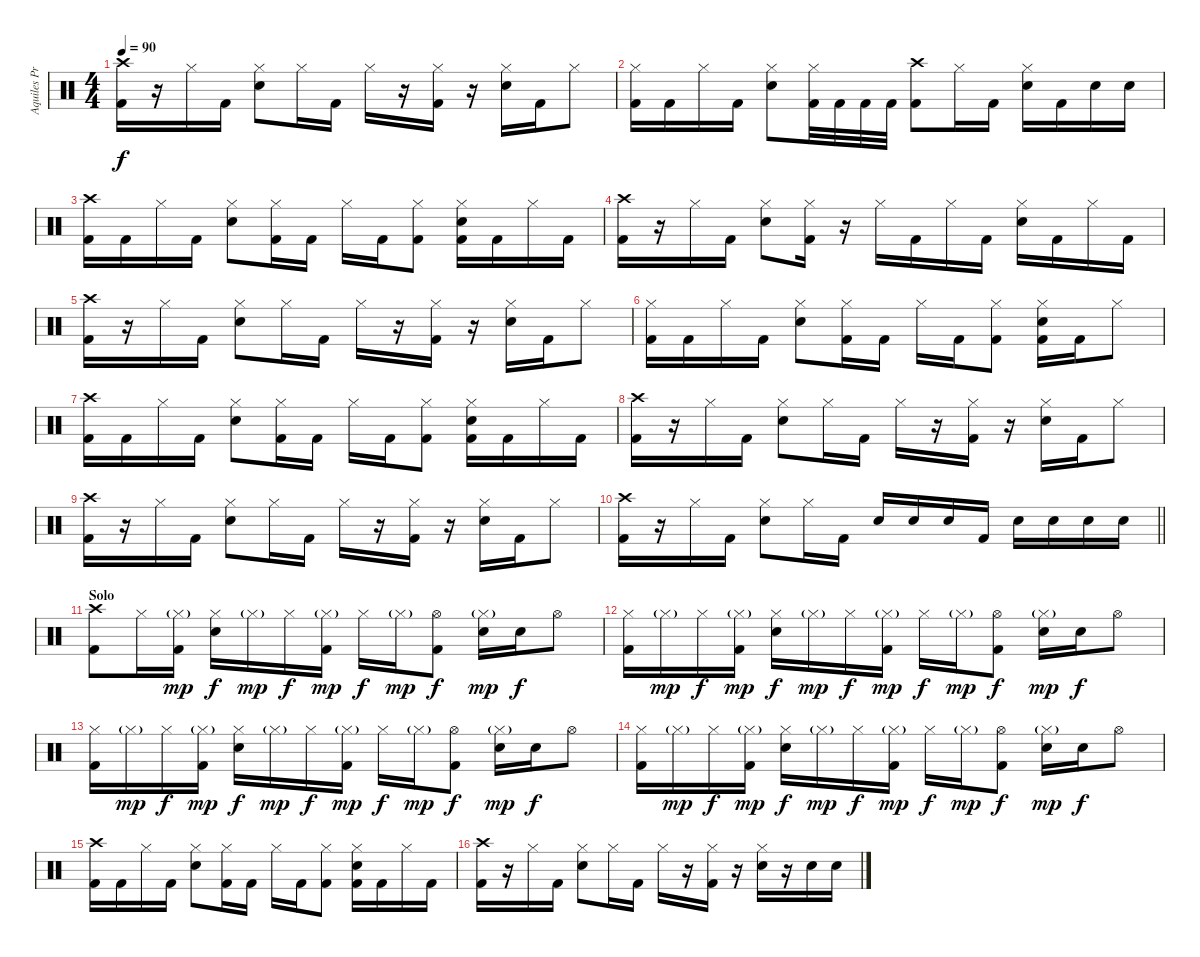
\track ("Aquiles Priester" "Aquiles Pr") {instrument percussion}
\staff {score}
\articulation defaults
\ts (4 4)
\tempo 90
\clef neutral
\ks c
("Crash high (hit)" "Kick (hit) 2").16{dy f} r.16 "Hi-Hat (closed)".16 "Kick (hit) 2".16 ("Hi-Hat (closed)" "Electric Snare (hit)").8 "Hi-Hat (closed)".16 "Kick (hit) 2".16 "Hi-Hat (closed)".16 r.16 ("Hi-Hat (closed)" "Kick (hit) 2").16 r.16 ("Hi-Hat (closed)" "Electric Snare (hit)").16 "Kick (hit) 2".16 "Hi-Hat (closed)".8 |
("Hi-Hat (closed)" "Kick (hit) 2").16 "Kick (hit) 2".16 "Hi-Hat (closed)".16 "Kick (hit) 2".16 ("Hi-Hat (closed)" "Electric Snare (hit)").8 ("Hi-Hat (closed)" "Kick (hit) 2").32 "Kick (hit) 2".32 "Kick (hit) 2".32 "Kick (hit) 2".32 ("Crash high (hit)" "Kick (hit) 2").8 "Hi-Hat (closed)".16 "Kick (hit) 2".16 ("Hi-Hat (closed)" "Electric Snare (hit)").16 "Kick (hit) 2".16 "Electric Snare (hit)".16 "Electric Snare (hit)".16 |
("Crash high (hit)" "Kick (hit) 2").16 "Kick (hit) 2".16 "Hi-Hat (closed)".16 "Kick (hit) 2".16 ("Hi-Hat (closed)" "Electric Snare (hit)").8 ("Hi-Hat (closed)" "Kick (hit) 2").16 "Kick (hit) 2".16 "Hi-Hat (closed)".16 "Kick (hit) 2".16 ("Hi-Hat (closed)" "Kick (hit) 2").8 ("Hi-Hat (closed)" "Electric Snare (hit)" "Kick (hit) 2").16 "Kick (hit) 2".16 "Hi-Hat (closed)".16 "Kick (hit) 2".16 |
("Crash high (hit)" "Kick (hit) 2").16 r.16 "Hi-Hat (closed)".16 "Kick (hit) 2".16 ("Hi-Hat (closed)" "Electric Snare (hit)").8 ("Hi-Hat (closed)" "Kick (hit) 2").16 r.16 "Hi-Hat (closed)".16 "Kick (hit) 2".16 "Hi-Hat (closed)".16 "Kick (hit) 2".16 ("Hi-Hat (closed)" "Electric Snare (hit)").16 "Kick (hit) 2".16 "Hi-Hat (closed)".16 "Kick (hit) 2".16 |
("Crash high (hit)" "Kick (hit) 2").16 r.16 "Hi-Hat (closed)".16 "Kick (hit) 2".16 ("Hi-Hat (closed)" "Electric Snare (hit)").8 "Hi-Hat (closed)".16 "Kick (hit) 2".16 "Hi-Hat (closed)".16 r.16 ("Hi-Hat (closed)" "Kick (hit) 2").16 r.16 ("Hi-Hat (closed)" "Electric Snare (hit)").16 "Kick (hit) 2".16 "Hi-Hat (closed)".8 |
("Hi-Hat (closed)" "Kick (hit) 2").16 "Kick (hit) 2".16 "Hi-Hat (closed)".16 "Kick (hit) 2".16 ("Hi-Hat (closed)" "Electric Snare (hit)").8 ("Hi-Hat (closed)" "Kick (hit) 2").16 "Kick (hit) 2".16 "Hi-Hat (closed)".16 "Kick (hit) 2".16 ("Hi-Hat (closed)" "Kick (hit) 2").8 ("Hi-Hat (closed)" "Electric Snare (hit)" "Kick (hit) 2").16 "Kick (hit) 2".16 "Hi-Hat (closed)".8 |
("Crash high (hit)" "Kick (hit) 2").16 "Kick (hit) 2".16 "Hi-Hat (closed)".16 "Kick (hit) 2".16 ("Hi-Hat (closed)" "Electric Snare (hit)").8 ("Hi-Hat (closed)" "Kick (hit) 2").16 "Kick (hit) 2".16 "Hi-Hat (closed)".16 "Kick (hit) 2".16 ("Hi-Hat (closed)" "Kick (hit) 2").8 ("Hi-Hat (closed)" "Electric Snare (hit)" "Kick (hit) 2").16 "Kick (hit) 2".16 "Hi-Hat (closed)".16 "Kick (hit) 2".16 |
("Crash high (hit)" "Kick (hit) 2").16 r.16 "Hi-Hat (closed)".16 "Kick (hit) 2".16 ("Hi-Hat (closed)" "Electric Snare (hit)").8 "Hi-Hat (closed)".16 "Kick (hit) 2".16 "Hi-Hat (closed)".16 r.16 ("Hi-Hat (closed)" "Kick (hit) 2").16 r.16 ("Hi-Hat (closed)" "Electric Snare (hit)").16 "Kick (hit) 2".16 "Hi-Hat (closed)".8 |
("Crash high (hit)" "Kick (hit) 2").16 r.16 "Hi-Hat (closed)".16 "Kick (hit) 2".16 ("Hi-Hat (closed)" "Electric Snare (hit)").8 "Hi-Hat (closed)".16 "Kick (hit) 2".16 "Hi-Hat (closed)".16 r.16 ("Hi-Hat (closed)" "Kick (hit) 2").16 r.16 ("Hi-Hat (closed)" "Electric Snare (hit)").16 "Kick (hit) 2".16 "Hi-Hat (closed)".8 |
\barLineRight lightlight
("Crash high (hit)" "Kick (hit) 2").16 r.16 "Hi-Hat (closed)".16 "Kick (hit) 2".16 ("Hi-Hat (closed)" "Electric Snare (hit)").8 "Hi-Hat (closed)".16 "Kick (hit) 2".16 "Electric Snare (hit)".16 "Electric Snare (hit)".16 "Electric Snare (hit)".16 "Kick (hit) 2".16 "Electric Snare (hit)".16 "Electric Snare (hit)".16 "Electric Snare (hit)".16 "Electric Snare (hit)".16 |
\section ("" "Solo")
("Crash high (hit)" "Kick (hit) 2").8 "Hi-Hat (closed)".16 ("Hi-Hat (closed)"{g} "Kick (hit) 2").16{dy mp} ("Hi-Hat (closed)" "Electric Snare (hit)").16{dy f} "Hi-Hat (closed)"{g}.16{dy mp} "Hi-Hat (closed)".16{dy f} ("Hi-Hat (closed)"{g} "Kick (hit) 2").16{dy mp} "Hi-Hat (closed)".16{dy f} "Hi-Hat (closed)"{g}.16{dy mp} ("Hi-Hat (open)" "Kick (hit) 2").8{dy f} ("Hi-Hat (closed)"{g} "Electric Snare (hit)").16{dy mp} "Electric Snare (hit)".16{dy f} "Hi-Hat (open)".8 |
("Hi-Hat (closed)" "Kick (hit) 2").16 "Hi-Hat (closed)"{g}.16{dy mp} "Hi-Hat (closed)".16{dy f} ("Hi-Hat (closed)"{g} "Kick (hit) 2").16{dy mp} ("Hi-Hat (closed)" "Electric Snare (hit)").16{dy f} "Hi-Hat (closed)"{g}.16{dy mp} "Hi-Hat (closed)".16{dy f} ("Hi-Hat (closed)"{g} "Kick (hit) 2").16{dy mp} "Hi-Hat (closed)".16{dy f} "Hi-Hat (closed)"{g}.16{dy mp} ("Hi-Hat (open)" "Kick (hit) 2").8{dy f} ("Hi-Hat (closed)"{g} "Electric Snare (hit)").16{dy mp} "Electric Snare (hit)".16{dy f} "Hi-Hat (open)".8 |
("Hi-Hat (closed)" "Kick (hit) 2").16 "Hi-Hat (closed)"{g}.16{dy mp} "Hi-Hat (closed)".16{dy f} ("Hi-Hat (closed)"{g} "Kick (hit) 2").16{dy mp} ("Hi-Hat (closed)" "Electric Snare (hit)").16{dy f} "Hi-Hat (closed)"{g}.16{dy mp} "Hi-Hat (closed)".16{dy f} ("Hi-Hat (closed)"{g} "Kick (hit) 2").16{dy mp} "Hi-Hat (closed)".16{dy f} "Hi-Hat (closed)"{g}.16{dy mp} ("Hi-Hat (open)" "Kick (hit) 2").8{dy f} ("Hi-Hat (closed)"{g} "Electric Snare (hit)").16{dy mp} "Electric Snare (hit)".16{dy f} "Hi-Hat (open)".8 |
("Hi-Hat (closed)" "Kick (hit) 2").16 "Hi-Hat (closed)"{g}.16{dy mp} "Hi-Hat (closed)".16{dy f} ("Hi-Hat (closed)"{g} "Kick (hit) 2").16{dy mp} ("Hi-Hat (closed)" "Electric Snare (hit)").16{dy f} "Hi-Hat (closed)"{g}.16{dy mp} "Hi-Hat (closed)".16{dy f} ("Hi-Hat (closed)"{g} "Kick (hit) 2").16{dy mp} "Hi-Hat (closed)".16{dy f} "Hi-Hat (closed)"{g}.16{dy mp} ("Hi-Hat (open)" "Kick (hit) 2").8{dy f} ("Hi-Hat (closed)"{g} "Electric Snare (hit)").16{dy mp} "Electric Snare (hit)".16{dy f} "Hi-Hat (open)".8 |
("Crash high (hit)" "Kick (hit) 2").16 "Kick (hit) 2".16 "Hi-Hat (closed)".16 "Kick (hit) 2".16 ("Hi-Hat (closed)" "Electric Snare (hit)").8 ("Hi-Hat (closed)" "Kick (hit) 2").16 "Kick (hit) 2".16 "Hi-Hat (closed)".16 "Kick (hit) 2".16 ("Hi-Hat (closed)" "Kick (hit) 2").8 ("Hi-Hat (closed)" "Electric Snare (hit)" "Kick (hit) 2").16 "Kick (hit) 2".16 "Hi-Hat (closed)".16 "Kick (hit) 2".16 |
("Crash high (hit)" "Kick (hit) 2").16 r.16 "Hi-Hat (closed)".16 "Kick (hit) 2".16 ("Hi-Hat (closed)" "Electric Snare (hit)").8 "Hi-Hat (closed)".16 "Kick (hit) 2".16 "Hi-Hat (closed)".16 r.16 ("Hi-Hat (closed)" "Kick (hit) 2").16 r.16 ("Hi-Hat (closed)" "Electric Snare (hit)").16 r.16 "Electric Snare (hit)".16 "Electric Snare (hit)".16
